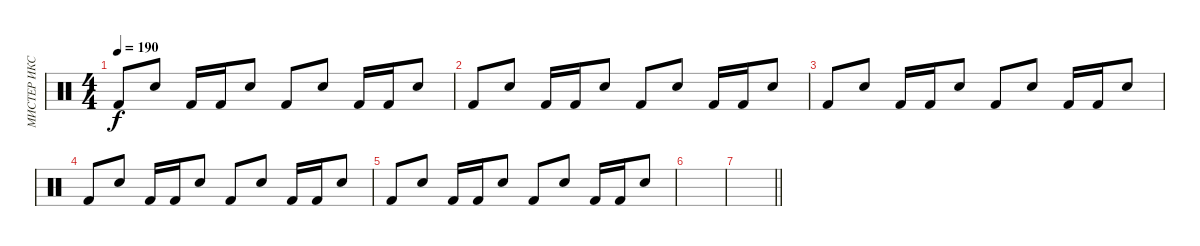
\track ("МИСТЕР ИКС" "МИСТЕР ИКС") {instrument percussion}
\staff {score}
\articulation defaults
\ts (4 4)
\tempo 190
\clef neutral
\ks c "Kick (hit) 2".8{dy f} "Electric Snare (hit)".8 "Kick (hit) 2".16 "Kick (hit) 2".16 "Electric Snare (hit)".8 "Kick (hit) 2".8 "Electric Snare (hit)".8 "Kick (hit) 2".16 "Kick (hit) 2".16 "Electric Snare (hit)".8
|
"Kick (hit) 2".8 "Electric Snare (hit)".8 "Kick (hit) 2".16 "Kick (hit) 2".16 "Electric Snare (hit)".8 "Kick (hit) 2".8 "Electric Snare (hit)".8 "Kick (hit) 2".16 "Kick (hit) 2".16 "Electric Snare (hit)".8 |
"Kick (hit) 2".8 "Electric Snare (hit)".8 "Kick (hit) 2".16 "Kick (hit) 2".16 "Electric Snare (hit)".8 "Kick (hit) 2".8 "Electric Snare (hit)".8 "Kick (hit) 2".16 "Kick (hit) 2".16 "Electric Snare (hit)".8 |
"Kick (hit) 2".8 "Electric Snare (hit)".8 "Kick (hit) 2".16 "Kick (hit) 2".16 "Electric Snare (hit)".8 "Kick (hit) 2".8 "Electric Snare (hit)".8 "Kick (hit) 2".16 "Kick (hit) 2".16 "Electric Snare (hit)".8 |
"Kick (hit) 2".8 "Electric Snare (hit)".8 "Kick (hit) 2".16 "Kick (hit) 2".16 "Electric Snare (hit)".8 "Kick (hit) 2".8 "Electric Snare (hit)".8 "Kick (hit) 2".16 "Kick (hit) 2".16 "Electric Snare (hit)".8 |
|
\barLineRight lightlight
